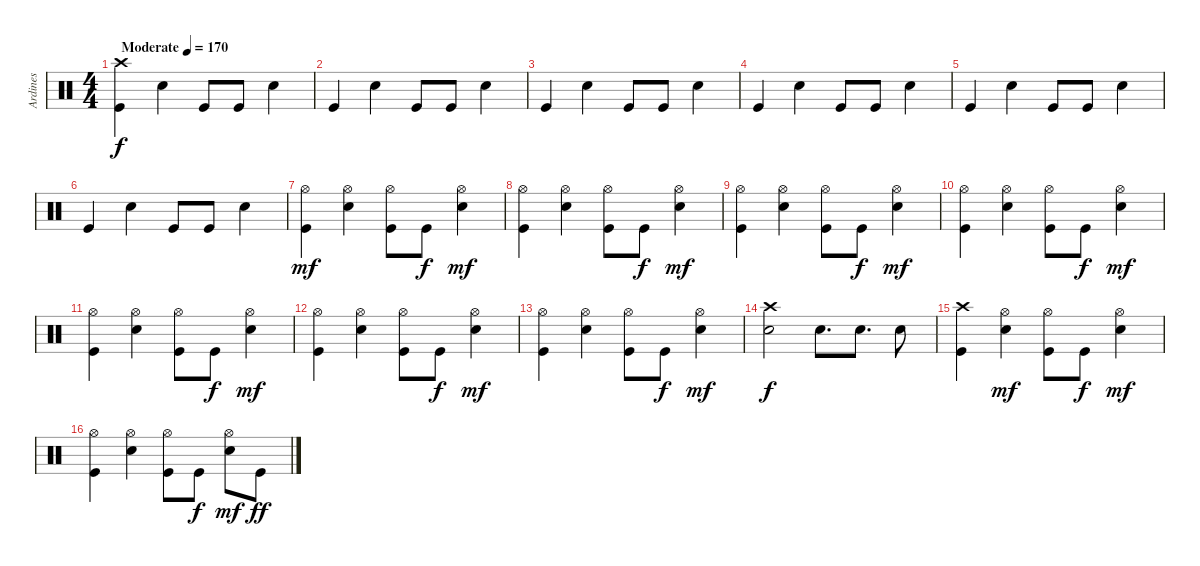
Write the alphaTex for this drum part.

\track ("Ardines" "Ardines") {instrument percussion}
\staff {score}
\articulation defaults
\ts (4 4)
\tempo (170 "Moderate")
\clef neutral
\ks c
("Crash high (hit)" "Kick (hit)").4{dy f} "Snare (hit) 2".4 "Kick (hit)".8 "Kick (hit)".8 "Snare (hit) 2".4 |
"Kick (hit)".4 "Snare (hit) 2".4 "Kick (hit)".8 "Kick (hit)".8 "Snare (hit) 2".4 |
"Kick (hit)".4 "Snare (hit) 2".4 "Kick (hit)".8 "Kick (hit)".8 "Snare (hit) 2".4 |
"Kick (hit)".4 "Snare (hit) 2".4 "Kick (hit)".8 "Kick (hit)".8 "Snare (hit) 2".4 |
"Kick (hit)".4 "Snare (hit) 2".4 "Kick (hit)".8 "Kick (hit)".8 "Snare (hit) 2".4 |
"Kick (hit)".4 "Snare (hit) 2".4 "Kick (hit)".8 "Kick (hit)".8 "Snare (hit) 2".4 |
("Kick (hit)" "Hi-Hat (open)").4{dy mf} ("Snare (hit) 2" "Hi-Hat (open)").4 ("Kick (hit)" "Hi-Hat (open)").8 "Kick (hit)".8{dy f} ("Snare (hit) 2" "Hi-Hat (open)").4{dy mf} |
("Kick (hit)" "Hi-Hat (open)").4 ("Snare (hit) 2" "Hi-Hat (open)").4 ("Kick (hit)" "Hi-Hat (open)").8 "Kick (hit)".8{dy f} ("Snare (hit) 2" "Hi-Hat (open)").4{dy mf} |
("Kick (hit)" "Hi-Hat (open)").4 ("Snare (hit) 2" "Hi-Hat (open)").4 ("Kick (hit)" "Hi-Hat (open)").8 "Kick (hit)".8{dy f} ("Snare (hit) 2" "Hi-Hat (open)").4{dy mf} |
("Kick (hit)" "Hi-Hat (open)").4 ("Snare (hit) 2" "Hi-Hat (open)").4 ("Kick (hit)" "Hi-Hat (open)").8 "Kick (hit)".8{dy f} ("Snare (hit) 2" "Hi-Hat (open)").4{dy mf} |
("Kick (hit)" "Hi-Hat (open)").4 ("Snare (hit) 2" "Hi-Hat (open)").4 ("Kick (hit)" "Hi-Hat (open)").8 "Kick (hit)".8{dy f} ("Snare (hit) 2" "Hi-Hat (open)").4{dy mf} |
("Kick (hit)" "Hi-Hat (open)").4 ("Snare (hit) 2" "Hi-Hat (open)").4 ("Kick (hit)" "Hi-Hat (open)").8 "Kick (hit)".8{dy f} ("Snare (hit) 2" "Hi-Hat (open)").4{dy mf} |
("Kick (hit)" "Hi-Hat (open)").4 ("Snare (hit) 2" "Hi-Hat (open)").4 ("Kick (hit)" "Hi-Hat (open)").8 "Kick (hit)".8{dy f} ("Snare (hit) 2" "Hi-Hat (open)").4{dy mf} |
("Crash high (hit)" "Snare (hit) 2").2{dy f} "Snare (hit) 2".8{d} "Snare (hit) 2".8{d} "Snare (hit) 2".8 |
("Crash high (hit)" "Kick (hit)").4 ("Snare (hit) 2" "Hi-Hat (open)").4{dy mf} ("Kick (hit)" "Hi-Hat (open)").8 "Kick (hit)".8{dy f} ("Snare (hit) 2" "Hi-Hat (open)").4{dy mf} |
("Kick (hit)" "Hi-Hat (open)").4 ("Snare (hit) 2" "Hi-Hat (open)").4 ("Kick (hit)" "Hi-Hat (open)").8 "Kick (hit)".8{dy f} ("Snare (hit) 2" "Hi-Hat (open)").8{dy mf} "Kick (hit)".8{dy ff}
